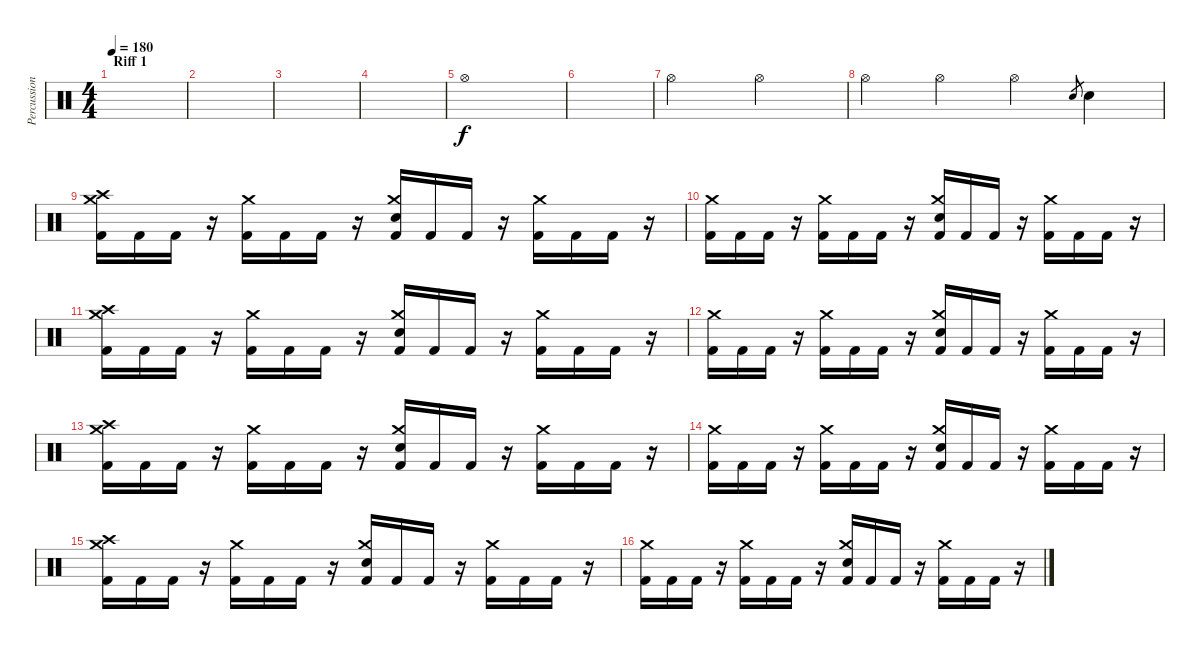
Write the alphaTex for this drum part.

\track ("Percussion" "Percussion") {instrument percussion}
\staff {score}
\articulation defaults
\ts (4 4)
\section ("" "Riff 1")
\tempo 180
\clef neutral
\ks c
|
|
|
|
"Hi-Hat (open)".1 |
|
"Hi-Hat (open)".2 "Hi-Hat (open)".2 |
"Hi-Hat (open)".4 "Hi-Hat (open)".4 "Hi-Hat (open)".4 "Electric Snare (hit)".8{gr} "Electric Snare (hit)".4 |
("Crash medium (hit)" "Crash high (hit)" "Kick (hit) 2").16 "Kick (hit) 2".16 "Kick (hit) 2".16 r.16 ("Crash medium (hit)" "Kick (hit) 2").16 "Kick (hit) 2".16 "Kick (hit) 2".16 r.16 ("Crash medium (hit)" "Electric Snare (hit)" "Kick (hit) 2").16 "Kick (hit) 2".16 "Kick (hit) 2".16 r.16 ("Crash medium (hit)" "Kick (hit) 2").16 "Kick (hit) 2".16 "Kick (hit) 2".16 r.16 |
("Crash medium (hit)" "Kick (hit) 2").16 "Kick (hit) 2".16 "Kick (hit) 2".16 r.16 ("Crash medium (hit)" "Kick (hit) 2").16 "Kick (hit) 2".16 "Kick (hit) 2".16 r.16 ("Crash medium (hit)" "Electric Snare (hit)" "Kick (hit) 2").16 "Kick (hit) 2".16 "Kick (hit) 2".16 r.16 ("Crash medium (hit)" "Kick (hit) 2").16 "Kick (hit) 2".16 "Kick (hit) 2".16 r.16 |
("Crash medium (hit)" "Crash high (hit)" "Kick (hit) 2").16 "Kick (hit) 2".16 "Kick (hit) 2".16 r.16 ("Crash medium (hit)" "Kick (hit) 2").16 "Kick (hit) 2".16 "Kick (hit) 2".16 r.16 ("Crash medium (hit)" "Electric Snare (hit)" "Kick (hit) 2").16 "Kick (hit) 2".16 "Kick (hit) 2".16 r.16 ("Crash medium (hit)" "Kick (hit) 2").16 "Kick (hit) 2".16 "Kick (hit) 2".16 r.16 |
("Crash medium (hit)" "Kick (hit) 2").16 "Kick (hit) 2".16 "Kick (hit) 2".16 r.16 ("Crash medium (hit)" "Kick (hit) 2").16 "Kick (hit) 2".16 "Kick (hit) 2".16 r.16 ("Crash medium (hit)" "Electric Snare (hit)" "Kick (hit) 2").16 "Kick (hit) 2".16 "Kick (hit) 2".16 r.16 ("Crash medium (hit)" "Kick (hit) 2").16 "Kick (hit) 2".16 "Kick (hit) 2".16 r.16 |
("Crash medium (hit)" "Crash high (hit)" "Kick (hit) 2").16 "Kick (hit) 2".16 "Kick (hit) 2".16 r.16 ("Crash medium (hit)" "Kick (hit) 2").16 "Kick (hit) 2".16 "Kick (hit) 2".16 r.16 ("Crash medium (hit)" "Electric Snare (hit)" "Kick (hit) 2").16 "Kick (hit) 2".16 "Kick (hit) 2".16 r.16 ("Crash medium (hit)" "Kick (hit) 2").16 "Kick (hit) 2".16 "Kick (hit) 2".16 r.16 |
("Crash medium (hit)" "Kick (hit) 2").16 "Kick (hit) 2".16 "Kick (hit) 2".16 r.16 ("Crash medium (hit)" "Kick (hit) 2").16 "Kick (hit) 2".16 "Kick (hit) 2".16 r.16 ("Crash medium (hit)" "Electric Snare (hit)" "Kick (hit) 2").16 "Kick (hit) 2".16 "Kick (hit) 2".16 r.16 ("Crash medium (hit)" "Kick (hit) 2").16 "Kick (hit) 2".16 "Kick (hit) 2".16 r.16 |
("Crash medium (hit)" "Crash high (hit)" "Kick (hit) 2").16 "Kick (hit) 2".16 "Kick (hit) 2".16 r.16 ("Crash medium (hit)" "Kick (hit) 2").16 "Kick (hit) 2".16 "Kick (hit) 2".16 r.16 ("Crash medium (hit)" "Electric Snare (hit)" "Kick (hit) 2").16 "Kick (hit) 2".16 "Kick (hit) 2".16 r.16 ("Crash medium (hit)" "Kick (hit) 2").16 "Kick (hit) 2".16 "Kick (hit) 2".16 r.16 |
("Crash medium (hit)" "Kick (hit) 2").16 "Kick (hit) 2".16 "Kick (hit) 2".16 r.16 ("Crash medium (hit)" "Kick (hit) 2").16 "Kick (hit) 2".16 "Kick (hit) 2".16 r.16 ("Crash medium (hit)" "Electric Snare (hit)" "Kick (hit) 2").16 "Kick (hit) 2".16 "Kick (hit) 2".16 r.16 ("Crash medium (hit)" "Kick (hit) 2").16 "Kick (hit) 2".16 "Kick (hit) 2".16 r.16
